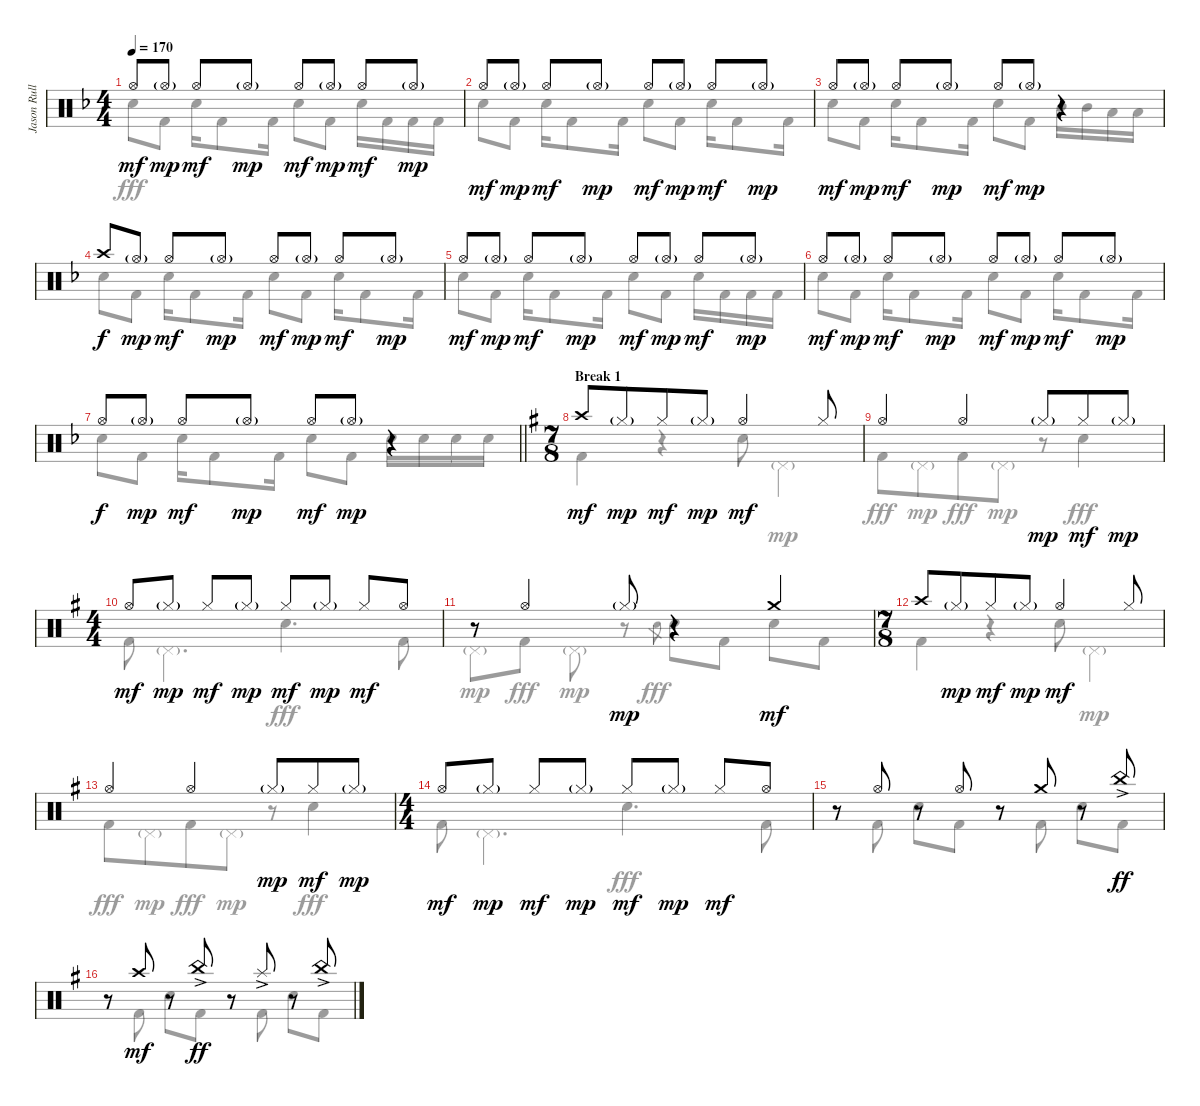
\track ("Jason Rullo Drums" "Jason Rull") {instrument percussion}
\staff {score}
\articulation defaults
\voice
\ts (4 4)
\tempo 170
\clef neutral
\ks dminor "Hi-Hat (open)".8{dy mf} "Hi-Hat (open)"{g}.8{dy mp} "Hi-Hat (open)".8{dy mf} "Hi-Hat (open)"{g}.8{dy mp} "Hi-Hat (open)".8{dy mf} "Hi-Hat (open)"{g}.8{dy mp} "Hi-Hat (open)".8{dy mf} "Hi-Hat (open)"{g}.8{dy mp}
|
"Hi-Hat (open)".8{dy mf} "Hi-Hat (open)"{g}.8{dy mp} "Hi-Hat (open)".8{dy mf} "Hi-Hat (open)"{g}.8{dy mp} "Hi-Hat (open)".8{dy mf} "Hi-Hat (open)"{g}.8{dy mp} "Hi-Hat (open)".8{dy mf} "Hi-Hat (open)"{g}.8{dy mp} |
"Hi-Hat (open)".8{dy mf} "Hi-Hat (open)"{g}.8{dy mp} "Hi-Hat (open)".8{dy mf} "Hi-Hat (open)"{g}.8{dy mp} "Hi-Hat (open)".8{dy mf} "Hi-Hat (open)"{g}.8{dy mp} r.4 |
"Crash high (hit)".8{dy f} "Hi-Hat (open)"{g}.8{dy mp} "Hi-Hat (open)".8{dy mf} "Hi-Hat (open)"{g}.8{dy mp} "Hi-Hat (open)".8{dy mf} "Hi-Hat (open)"{g}.8{dy mp} "Hi-Hat (open)".8{dy mf} "Hi-Hat (open)"{g}.8{dy mp} |
"Hi-Hat (open)".8{dy mf} "Hi-Hat (open)"{g}.8{dy mp} "Hi-Hat (open)".8{dy mf} "Hi-Hat (open)"{g}.8{dy mp} "Hi-Hat (open)".8{dy mf} "Hi-Hat (open)"{g}.8{dy mp} "Hi-Hat (open)".8{dy mf} "Hi-Hat (open)"{g}.8{dy mp} |
"Hi-Hat (open)".8{dy mf} "Hi-Hat (open)"{g}.8{dy mp} "Hi-Hat (open)".8{dy mf} "Hi-Hat (open)"{g}.8{dy mp} "Hi-Hat (open)".8{dy mf} "Hi-Hat (open)"{g}.8{dy mp} "Hi-Hat (open)".8{dy mf} "Hi-Hat (open)"{g}.8{dy mp} |
\barLineRight lightlight "Hi-Hat (open)".8{dy f} "Hi-Hat (open)"{g}.8{dy mp} "Hi-Hat (open)".8{dy mf} "Hi-Hat (open)"{g}.8{dy mp} "Hi-Hat (open)".8{dy mf} "Hi-Hat (open)"{g}.8{dy mp}
r.4 |
\ts (7 8)
\section ("" "Break 1")
\ks eminor "Crash high (hit)".8{dy mf} "Hi-Hat (closed)"{g}.8{dy mp} "Hi-Hat (closed)".8{dy mf} "Hi-Hat (closed)"{g}.8{dy mp} "Hi-Hat (open)".4{dy mf} "Hi-Hat (closed)".8
|
"Hi-Hat (open)".4 "Hi-Hat (open)".4 "Hi-Hat (closed)"{g}.8{dy mp} "Hi-Hat (closed)".8{dy mf} "Hi-Hat (closed)"{g}.8{dy mp} |
\ts (4 4)
"Hi-Hat (open)".8{dy mf} "Hi-Hat (closed)"{g}.8{dy mp} "Hi-Hat (closed)".8{dy mf} "Hi-Hat (closed)"{g}.8{dy mp} "Hi-Hat (closed)".8{dy mf} "Hi-Hat (closed)"{g}.8{dy mp} "Hi-Hat (closed)".8{dy mf} "Hi-Hat (open)".8 |
r.8 "Hi-Hat (open)".4 "Hi-Hat (closed)"{g}.8{dy mp} r.4 "Crash medium (hit)".4{dy mf} |
\ts (7 8)
"Crash high (hit)".8 "Hi-Hat (closed)"{g}.8{dy mp} "Hi-Hat (closed)".8{dy mf} "Hi-Hat (closed)"{g}.8{dy mp} "Hi-Hat (open)".4{dy mf} "Hi-Hat (closed)".8 |
"Hi-Hat (open)".4 "Hi-Hat (open)".4 "Hi-Hat (closed)"{g}.8{dy mp} "Hi-Hat (closed)".8{dy mf} "Hi-Hat (closed)"{g}.8{dy mp} |
\ts (4 4)
"Hi-Hat (open)".8{dy mf} "Hi-Hat (closed)"{g}.8{dy mp} "Hi-Hat (closed)".8{dy mf} "Hi-Hat (closed)"{g}.8{dy mp} "Hi-Hat (closed)".8{dy mf} "Hi-Hat (closed)"{g}.8{dy mp} "Hi-Hat (closed)".8{dy mf} "Hi-Hat (open)".8 |
r.8 "Hi-Hat (open)".8 r.8 "Hi-Hat (open)".8 r.8 "Crash medium (hit)".8 r.8 "China (hit)"{ac}.8{dy ff} |
r.8 "Crash high (hit)".8{dy mf} r.8 "China (hit)"{ac}.8{dy ff} r.8 "Splash (hit)"{ac}.8 r.8 "China (hit)"{ac}.8
\voice
\clef neutral
\ottava regular
\simile none
\ks dminor "Electric Snare (hit)".8{dy fff} "Kick (hit) 2".8 "Electric Snare (hit)".16 "Kick (hit) 2".8 "Kick (hit) 2".16 "Electric Snare (hit)".8 "Kick (hit) 2".8 "Electric Snare (hit)".16 "Kick (hit) 2".16 "Kick (hit) 2".16 "Kick (hit) 2".16
|
"Electric Snare (hit)".8 "Kick (hit) 2".8 "Electric Snare (hit)".16 "Kick (hit) 2".8 "Kick (hit) 2".16 "Electric Snare (hit)".8 "Kick (hit) 2".8 "Electric Snare (hit)".16 "Kick (hit) 2".8 "Kick (hit) 2".16 |
"Electric Snare (hit)".8 "Kick (hit) 2".8 "Electric Snare (hit)".16 "Kick (hit) 2".8 "Kick (hit) 2".16 "Electric Snare (hit)".8 "Kick (hit) 2".8 "Mid Tom (hit)".16 "Mid Tom (hit)".16 "Low Tom (hit)".16 "Low Tom (hit)".16 |
"Electric Snare (hit)".8 "Kick (hit) 2".8 "Electric Snare (hit)".16 "Kick (hit) 2".8 "Kick (hit) 2".16 "Electric Snare (hit)".8 "Kick (hit) 2".8 "Electric Snare (hit)".16 "Kick (hit) 2".8 "Kick (hit) 2".16 |
"Electric Snare (hit)".8 "Kick (hit) 2".8 "Electric Snare (hit)".16 "Kick (hit) 2".8 "Kick (hit) 2".16 "Electric Snare (hit)".8 "Kick (hit) 2".8 "Electric Snare (hit)".16 "Kick (hit) 2".16 "Kick (hit) 2".16 "Kick (hit) 2".16 |
"Electric Snare (hit)".8 "Kick (hit) 2".8 "Electric Snare (hit)".16 "Kick (hit) 2".8 "Kick (hit) 2".16 "Electric Snare (hit)".8 "Kick (hit) 2".8 "Electric Snare (hit)".16 "Kick (hit) 2".8 "Kick (hit) 2".16 |
\barLineRight lightlight "Electric Snare (hit)".8 "Kick (hit) 2".8 "Electric Snare (hit)".16 "Kick (hit) 2".8 "Kick (hit) 2".16 "Electric Snare (hit)".8 "Kick (hit) 2".8 "Electric Snare (hit)".16 "Electric Snare (hit)".16 "Electric Snare (hit)".16 "Electric Snare (hit)".16
|
\ks eminor "Kick (hit) 2".4
r.4 "Electric Snare (hit)".8 "Pedal Hi-Hat (hit)"{g}.4{dy mp} |
"Kick (hit) 2".8{dy fff} "Pedal Hi-Hat (hit)"{g}.8{dy mp} "Kick (hit) 2".8{dy fff} "Pedal Hi-Hat (hit)"{g}.8{dy mp} r.8 "Electric Snare (hit)".4{dy fff} |
"Kick (hit) 2".8 "Pedal Hi-Hat (hit)"{g}.4{d dy mp} "Electric Snare (hit)".4{d dy fff} "Kick (hit) 2".8 |
"Pedal Hi-Hat (hit)"{g}.8{dy mp} "Kick (hit) 2".8{dy fff} "Pedal Hi-Hat (hit)"{g}.8{dy mp} r.8 "Electric Snare (hit)".8{gr dy fff} "Electric Snare (hit)".8 "Kick (hit) 2".8 "Electric Snare (hit)".8 "Kick (hit) 2".8 |
"Kick (hit) 2".4 r.4 "Electric Snare (hit)".8 "Pedal Hi-Hat (hit)"{g}.4{dy mp} |
"Kick (hit) 2".8{dy fff} "Pedal Hi-Hat (hit)"{g}.8{dy mp} "Kick (hit) 2".8{dy fff} "Pedal Hi-Hat (hit)"{g}.8{dy mp} r.8 "Electric Snare (hit)".4{dy fff} |
"Kick (hit) 2".8 "Pedal Hi-Hat (hit)"{g}.4{d dy mp} "Electric Snare (hit)".4{d dy fff} "Kick (hit) 2".8 |
r.8 "Kick (hit) 2".8 "Electric Snare (hit)".8 "Kick (hit) 2".8 r.8 "Kick (hit) 2".8 "Electric Snare (hit)".8 "Kick (hit) 2".8 |
r.8 "Kick (hit) 2".8 "Electric Snare (hit)".8 "Kick (hit) 2".8 r.8 "Kick (hit) 2".8 "Electric Snare (hit)".8 "Kick (hit) 2".8
